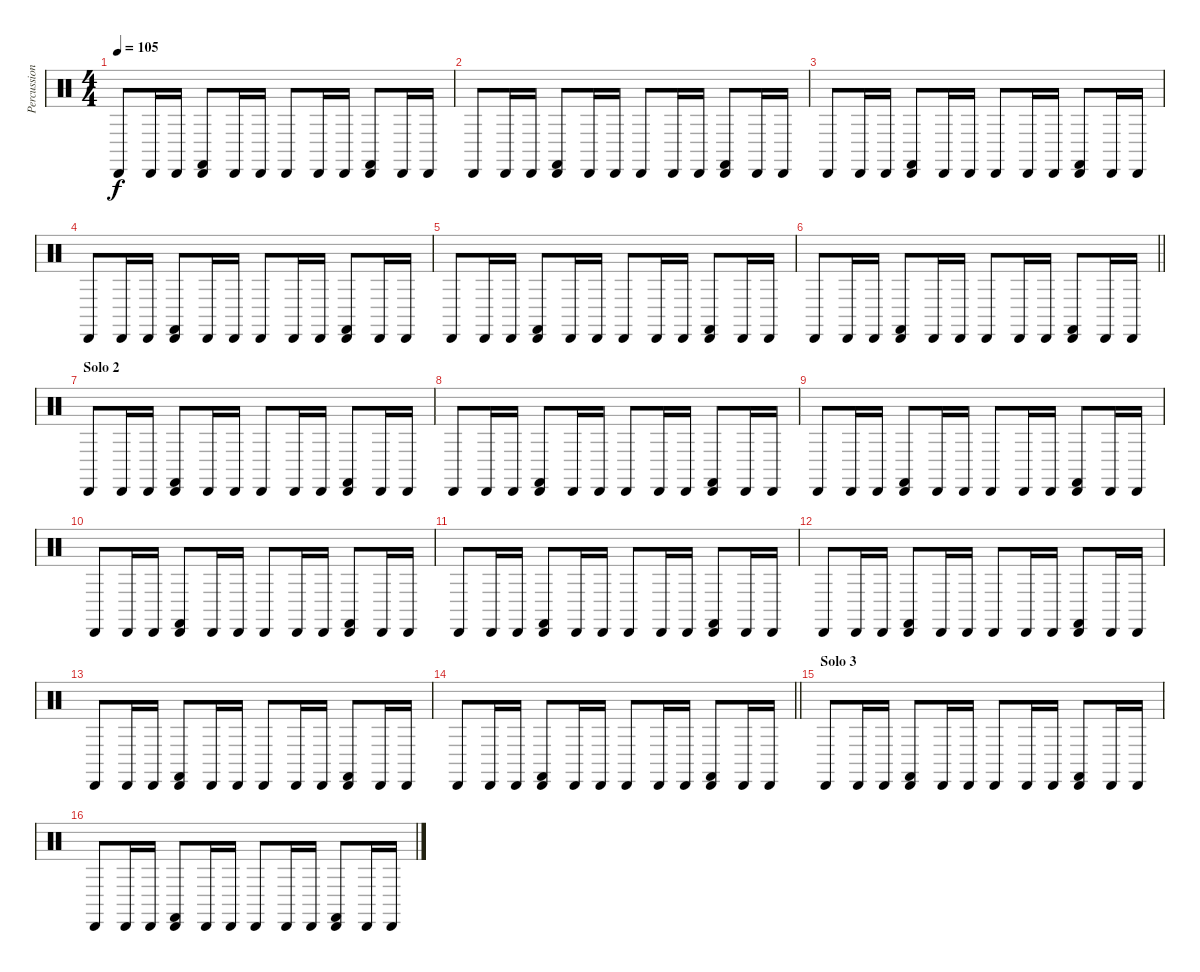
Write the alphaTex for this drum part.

\track ("Percussion" "Percussion") {instrument percussion}
\staff {score}
\articulation defaults
\ts (4 4)
\tempo 105
\clef neutral
\ks c "Cabasa (hit)".8{dy f} "Cabasa (hit)".16 "Cabasa (hit)".16
("Cabasa (hit)" "Castanets (hit)").8 "Cabasa (hit)".16 "Cabasa (hit)".16 "Cabasa (hit)".8 "Cabasa (hit)".16 "Cabasa (hit)".16 ("Cabasa (hit)" "Castanets (hit)").8 "Cabasa (hit)".16 "Cabasa (hit)".16 |
"Cabasa (hit)".8 "Cabasa (hit)".16 "Cabasa (hit)".16 ("Cabasa (hit)" "Castanets (hit)").8 "Cabasa (hit)".16 "Cabasa (hit)".16 "Cabasa (hit)".8 "Cabasa (hit)".16 "Cabasa (hit)".16 ("Cabasa (hit)" "Castanets (hit)").8 "Cabasa (hit)".16 "Cabasa (hit)".16 |
"Cabasa (hit)".8 "Cabasa (hit)".16 "Cabasa (hit)".16 ("Cabasa (hit)" "Castanets (hit)").8 "Cabasa (hit)".16 "Cabasa (hit)".16 "Cabasa (hit)".8 "Cabasa (hit)".16 "Cabasa (hit)".16 ("Cabasa (hit)" "Castanets (hit)").8 "Cabasa (hit)".16 "Cabasa (hit)".16 |
"Cabasa (hit)".8 "Cabasa (hit)".16 "Cabasa (hit)".16 ("Cabasa (hit)" "Castanets (hit)").8 "Cabasa (hit)".16 "Cabasa (hit)".16 "Cabasa (hit)".8 "Cabasa (hit)".16 "Cabasa (hit)".16 ("Cabasa (hit)" "Castanets (hit)").8 "Cabasa (hit)".16 "Cabasa (hit)".16 |
"Cabasa (hit)".8 "Cabasa (hit)".16 "Cabasa (hit)".16 ("Cabasa (hit)" "Castanets (hit)").8 "Cabasa (hit)".16 "Cabasa (hit)".16 "Cabasa (hit)".8 "Cabasa (hit)".16 "Cabasa (hit)".16 ("Cabasa (hit)" "Castanets (hit)").8 "Cabasa (hit)".16 "Cabasa (hit)".16 |
\barLineRight lightlight "Cabasa (hit)".8 "Cabasa (hit)".16 "Cabasa (hit)".16
("Cabasa (hit)" "Castanets (hit)").8 "Cabasa (hit)".16 "Cabasa (hit)".16 "Cabasa (hit)".8 "Cabasa (hit)".16 "Cabasa (hit)".16 ("Cabasa (hit)" "Castanets (hit)").8 "Cabasa (hit)".16 "Cabasa (hit)".16 |
\section ("" "Solo 2")
"Cabasa (hit)".8 "Cabasa (hit)".16 "Cabasa (hit)".16 ("Cabasa (hit)" "Castanets (hit)").8 "Cabasa (hit)".16 "Cabasa (hit)".16 "Cabasa (hit)".8 "Cabasa (hit)".16 "Cabasa (hit)".16 ("Cabasa (hit)" "Castanets (hit)").8 "Cabasa (hit)".16 "Cabasa (hit)".16 |
"Cabasa (hit)".8 "Cabasa (hit)".16 "Cabasa (hit)".16 ("Cabasa (hit)" "Castanets (hit)").8 "Cabasa (hit)".16 "Cabasa (hit)".16 "Cabasa (hit)".8 "Cabasa (hit)".16 "Cabasa (hit)".16 ("Cabasa (hit)" "Castanets (hit)").8 "Cabasa (hit)".16 "Cabasa (hit)".16 |
"Cabasa (hit)".8 "Cabasa (hit)".16 "Cabasa (hit)".16 ("Cabasa (hit)" "Castanets (hit)").8 "Cabasa (hit)".16 "Cabasa (hit)".16 "Cabasa (hit)".8 "Cabasa (hit)".16 "Cabasa (hit)".16 ("Cabasa (hit)" "Castanets (hit)").8 "Cabasa (hit)".16 "Cabasa (hit)".16 |
"Cabasa (hit)".8 "Cabasa (hit)".16 "Cabasa (hit)".16 ("Cabasa (hit)" "Castanets (hit)").8 "Cabasa (hit)".16 "Cabasa (hit)".16 "Cabasa (hit)".8 "Cabasa (hit)".16 "Cabasa (hit)".16 ("Cabasa (hit)" "Castanets (hit)").8 "Cabasa (hit)".16 "Cabasa (hit)".16 |
"Cabasa (hit)".8 "Cabasa (hit)".16 "Cabasa (hit)".16 ("Cabasa (hit)" "Castanets (hit)").8 "Cabasa (hit)".16 "Cabasa (hit)".16 "Cabasa (hit)".8 "Cabasa (hit)".16 "Cabasa (hit)".16 ("Cabasa (hit)" "Castanets (hit)").8 "Cabasa (hit)".16 "Cabasa (hit)".16 |
"Cabasa (hit)".8 "Cabasa (hit)".16 "Cabasa (hit)".16 ("Cabasa (hit)" "Castanets (hit)").8 "Cabasa (hit)".16 "Cabasa (hit)".16 "Cabasa (hit)".8 "Cabasa (hit)".16 "Cabasa (hit)".16 ("Cabasa (hit)" "Castanets (hit)").8 "Cabasa (hit)".16 "Cabasa (hit)".16 |
"Cabasa (hit)".8 "Cabasa (hit)".16 "Cabasa (hit)".16 ("Cabasa (hit)" "Castanets (hit)").8 "Cabasa (hit)".16 "Cabasa (hit)".16 "Cabasa (hit)".8 "Cabasa (hit)".16 "Cabasa (hit)".16 ("Cabasa (hit)" "Castanets (hit)").8 "Cabasa (hit)".16 "Cabasa (hit)".16 |
\barLineRight lightlight "Cabasa (hit)".8 "Cabasa (hit)".16 "Cabasa (hit)".16
("Cabasa (hit)" "Castanets (hit)").8 "Cabasa (hit)".16 "Cabasa (hit)".16 "Cabasa (hit)".8 "Cabasa (hit)".16 "Cabasa (hit)".16 ("Cabasa (hit)" "Castanets (hit)").8 "Cabasa (hit)".16 "Cabasa (hit)".16 |
\section ("" "Solo 3")
"Cabasa (hit)".8 "Cabasa (hit)".16 "Cabasa (hit)".16 ("Cabasa (hit)" "Castanets (hit)").8 "Cabasa (hit)".16 "Cabasa (hit)".16 "Cabasa (hit)".8 "Cabasa (hit)".16 "Cabasa (hit)".16 ("Cabasa (hit)" "Castanets (hit)").8 "Cabasa (hit)".16 "Cabasa (hit)".16 |
"Cabasa (hit)".8 "Cabasa (hit)".16 "Cabasa (hit)".16 ("Cabasa (hit)" "Castanets (hit)").8 "Cabasa (hit)".16 "Cabasa (hit)".16 "Cabasa (hit)".8 "Cabasa (hit)".16 "Cabasa (hit)".16 ("Cabasa (hit)" "Castanets (hit)").8 "Cabasa (hit)".16 "Cabasa (hit)".16
